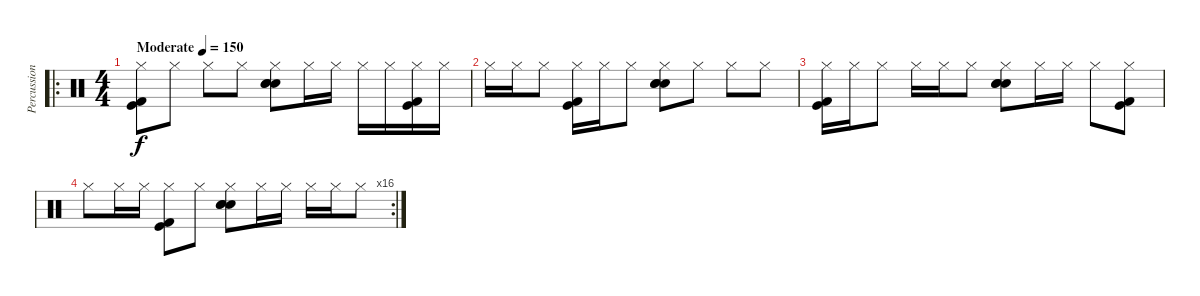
\track ("Percussion" "Percussion") {instrument percussion}
\staff {score}
\articulation defaults
\ro
\ts (4 4)
\tempo (150 "Moderate")
\clef neutral
\ks c
("Hi-Hat (closed)" "Kick (hit)" "Kick (hit) 2").8{dy f} "Hi-Hat (closed)".8 "Hi-Hat (closed)".8 "Hi-Hat (closed)".8 ("Hand Clap (hit)" "Hi-Hat (closed)" "Electric Snare (hit)" "Snare (hit) 2").8 "Hi-Hat (closed)".16 "Hi-Hat (closed)".16 "Hi-Hat (closed)".16 "Hi-Hat (closed)".16 ("Hi-Hat (closed)" "Kick (hit)" "Kick (hit) 2").16 "Hi-Hat (closed)".16 |
"Hi-Hat (closed)".16 "Hi-Hat (closed)".16 "Hi-Hat (closed)".8 ("Hi-Hat (closed)" "Kick (hit)" "Kick (hit) 2").16 "Hi-Hat (closed)".16 "Hi-Hat (closed)".8 ("Hand Clap (hit)" "Hi-Hat (closed)" "Electric Snare (hit)" "Snare (hit) 2").8 "Hi-Hat (closed)".8 "Hi-Hat (closed)".8 "Hi-Hat (closed)".8 |
("Hi-Hat (closed)" "Kick (hit)" "Kick (hit) 2").16 "Hi-Hat (closed)".16 "Hi-Hat (closed)".8 "Hi-Hat (closed)".16 "Hi-Hat (closed)".16 "Hi-Hat (closed)".8 ("Hand Clap (hit)" "Hi-Hat (closed)" "Electric Snare (hit)" "Snare (hit) 2").8 "Hi-Hat (closed)".16 "Hi-Hat (closed)".16 "Hi-Hat (closed)".8 ("Hi-Hat (closed)" "Kick (hit)" "Kick (hit) 2").8 |
\rc 16 "Hi-Hat (closed)".8 "Hi-Hat (closed)".16 "Hi-Hat (closed)".16
("Hi-Hat (closed)" "Kick (hit)" "Kick (hit) 2").8 "Hi-Hat (closed)".8 ("Hand Clap (hit)" "Hi-Hat (closed)" "Electric Snare (hit)" "Snare (hit) 2").8 "Hi-Hat (closed)".16 "Hi-Hat (closed)".16 "Hi-Hat (closed)".16 "Hi-Hat (closed)".16 "Hi-Hat (closed)".8
